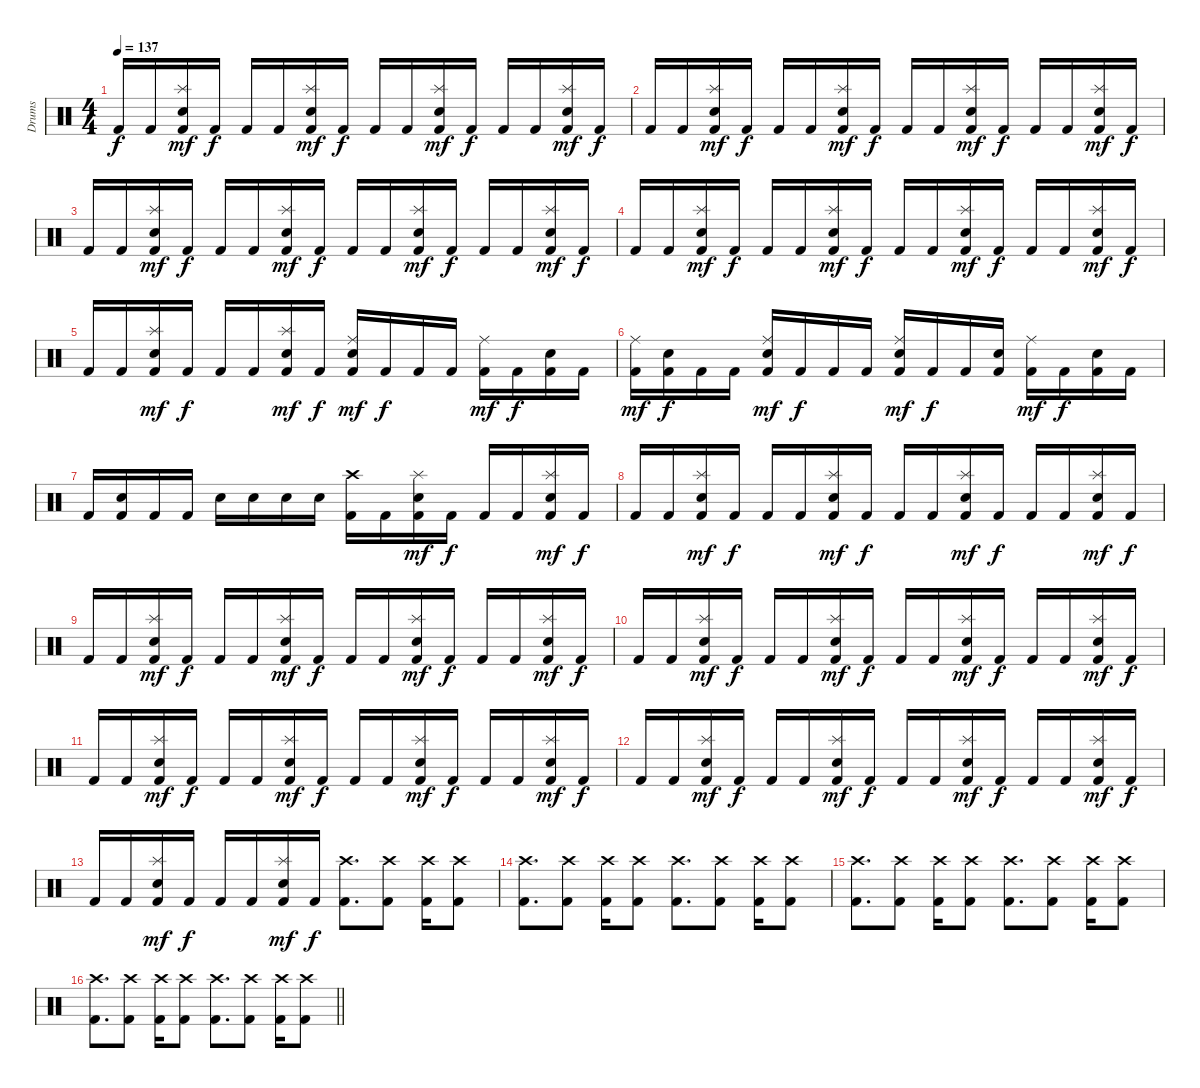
\track ("Drums" "Drums") {instrument percussion}
\staff {score}
\articulation defaults
\ts (4 4)
\tempo 137
\clef neutral
\ks c "Kick (hit) 2".16{dy f} "Kick (hit) 2".16
("Splash (hit)" "Electric Snare (hit)" "Kick (hit) 2").16{dy mf} "Kick (hit) 2".16{dy f} "Kick (hit) 2".16 "Kick (hit) 2".16 ("Splash (hit)" "Electric Snare (hit)" "Kick (hit) 2").16{dy mf} "Kick (hit) 2".16{dy f} "Kick (hit) 2".16 "Kick (hit) 2".16 ("Splash (hit)" "Electric Snare (hit)" "Kick (hit) 2").16{dy mf} "Kick (hit) 2".16{dy f} "Kick (hit) 2".16 "Kick (hit) 2".16 ("Splash (hit)" "Electric Snare (hit)" "Kick (hit) 2").16{dy mf} "Kick (hit) 2".16{dy f} |
"Kick (hit) 2".16 "Kick (hit) 2".16 ("Splash (hit)" "Electric Snare (hit)" "Kick (hit) 2").16{dy mf} "Kick (hit) 2".16{dy f} "Kick (hit) 2".16 "Kick (hit) 2".16 ("Splash (hit)" "Electric Snare (hit)" "Kick (hit) 2").16{dy mf} "Kick (hit) 2".16{dy f} "Kick (hit) 2".16 "Kick (hit) 2".16 ("Splash (hit)" "Electric Snare (hit)" "Kick (hit) 2").16{dy mf} "Kick (hit) 2".16{dy f} "Kick (hit) 2".16 "Kick (hit) 2".16 ("Splash (hit)" "Electric Snare (hit)" "Kick (hit) 2").16{dy mf} "Kick (hit) 2".16{dy f} |
"Kick (hit) 2".16 "Kick (hit) 2".16 ("Splash (hit)" "Electric Snare (hit)" "Kick (hit) 2").16{dy mf} "Kick (hit) 2".16{dy f} "Kick (hit) 2".16 "Kick (hit) 2".16 ("Splash (hit)" "Electric Snare (hit)" "Kick (hit) 2").16{dy mf} "Kick (hit) 2".16{dy f} "Kick (hit) 2".16 "Kick (hit) 2".16 ("Splash (hit)" "Electric Snare (hit)" "Kick (hit) 2").16{dy mf} "Kick (hit) 2".16{dy f} "Kick (hit) 2".16 "Kick (hit) 2".16 ("Splash (hit)" "Electric Snare (hit)" "Kick (hit) 2").16{dy mf} "Kick (hit) 2".16{dy f} |
"Kick (hit) 2".16 "Kick (hit) 2".16 ("Splash (hit)" "Electric Snare (hit)" "Kick (hit) 2").16{dy mf} "Kick (hit) 2".16{dy f} "Kick (hit) 2".16 "Kick (hit) 2".16 ("Splash (hit)" "Electric Snare (hit)" "Kick (hit) 2").16{dy mf} "Kick (hit) 2".16{dy f} "Kick (hit) 2".16 "Kick (hit) 2".16 ("Splash (hit)" "Electric Snare (hit)" "Kick (hit) 2").16{dy mf} "Kick (hit) 2".16{dy f} "Kick (hit) 2".16 "Kick (hit) 2".16 ("Splash (hit)" "Electric Snare (hit)" "Kick (hit) 2").16{dy mf} "Kick (hit) 2".16{dy f} |
"Kick (hit) 2".16 "Kick (hit) 2".16 ("Splash (hit)" "Electric Snare (hit)" "Kick (hit) 2").16{dy mf} "Kick (hit) 2".16{dy f} "Kick (hit) 2".16 "Kick (hit) 2".16 ("Splash (hit)" "Electric Snare (hit)" "Kick (hit) 2").16{dy mf} "Kick (hit) 2".16{dy f} ("Ride (middle)" "Snare (hit) 2" "Kick (hit) 2").16{dy mf} "Kick (hit) 2".16{dy f} "Kick (hit) 2".16 "Kick (hit) 2".16 ("Ride (middle)" "Kick (hit) 2").16{dy mf} "Kick (hit) 2".16{dy f} ("Snare (hit) 2" "Kick (hit) 2").16 "Kick (hit) 2".16 |
("Ride (middle)" "Kick (hit) 2").16{dy mf} ("Snare (hit) 2" "Kick (hit) 2").16{dy f} "Kick (hit) 2".16 "Kick (hit) 2".16 ("Ride (middle)" "Snare (hit) 2" "Kick (hit) 2").16{dy mf} "Kick (hit) 2".16{dy f} "Kick (hit) 2".16 "Kick (hit) 2".16 ("Ride (middle)" "Snare (hit) 2" "Kick (hit) 2").16{dy mf} "Kick (hit) 2".16{dy f} "Kick (hit) 2".16 ("Snare (hit) 2" "Kick (hit) 2").16 ("Ride (middle)" "Kick (hit) 2").16{dy mf} "Kick (hit) 2".16{dy f} ("Snare (hit) 2" "Kick (hit) 2").16 "Kick (hit) 2".16 |
"Kick (hit) 2".16 ("Snare (hit) 2" "Kick (hit) 2").16 "Kick (hit) 2".16 "Kick (hit) 2".16 "Snare (hit) 2".16 "Snare (hit) 2".16 "Snare (hit) 2".16 "Snare (hit) 2".16 ("Crash high (hit)" "Kick (hit) 2").16 "Kick (hit) 2".16 ("Splash (hit)" "Electric Snare (hit)" "Kick (hit) 2").16{dy mf} "Kick (hit) 2".16{dy f} "Kick (hit) 2".16 "Kick (hit) 2".16 ("Splash (hit)" "Electric Snare (hit)" "Kick (hit) 2").16{dy mf} "Kick (hit) 2".16{dy f} |
"Kick (hit) 2".16 "Kick (hit) 2".16 ("Splash (hit)" "Electric Snare (hit)" "Kick (hit) 2").16{dy mf} "Kick (hit) 2".16{dy f} "Kick (hit) 2".16 "Kick (hit) 2".16 ("Splash (hit)" "Electric Snare (hit)" "Kick (hit) 2").16{dy mf} "Kick (hit) 2".16{dy f} "Kick (hit) 2".16 "Kick (hit) 2".16 ("Splash (hit)" "Electric Snare (hit)" "Kick (hit) 2").16{dy mf} "Kick (hit) 2".16{dy f} "Kick (hit) 2".16 "Kick (hit) 2".16 ("Splash (hit)" "Electric Snare (hit)" "Kick (hit) 2").16{dy mf} "Kick (hit) 2".16{dy f} |
"Kick (hit) 2".16 "Kick (hit) 2".16 ("Splash (hit)" "Electric Snare (hit)" "Kick (hit) 2").16{dy mf} "Kick (hit) 2".16{dy f} "Kick (hit) 2".16 "Kick (hit) 2".16 ("Splash (hit)" "Electric Snare (hit)" "Kick (hit) 2").16{dy mf} "Kick (hit) 2".16{dy f} "Kick (hit) 2".16 "Kick (hit) 2".16 ("Splash (hit)" "Electric Snare (hit)" "Kick (hit) 2").16{dy mf} "Kick (hit) 2".16{dy f} "Kick (hit) 2".16 "Kick (hit) 2".16 ("Splash (hit)" "Electric Snare (hit)" "Kick (hit) 2").16{dy mf} "Kick (hit) 2".16{dy f} |
"Kick (hit) 2".16 "Kick (hit) 2".16 ("Splash (hit)" "Electric Snare (hit)" "Kick (hit) 2").16{dy mf} "Kick (hit) 2".16{dy f} "Kick (hit) 2".16 "Kick (hit) 2".16 ("Splash (hit)" "Electric Snare (hit)" "Kick (hit) 2").16{dy mf} "Kick (hit) 2".16{dy f} "Kick (hit) 2".16 "Kick (hit) 2".16 ("Splash (hit)" "Electric Snare (hit)" "Kick (hit) 2").16{dy mf} "Kick (hit) 2".16{dy f} "Kick (hit) 2".16 "Kick (hit) 2".16 ("Splash (hit)" "Electric Snare (hit)" "Kick (hit) 2").16{dy mf} "Kick (hit) 2".16{dy f} |
"Kick (hit) 2".16 "Kick (hit) 2".16 ("Splash (hit)" "Electric Snare (hit)" "Kick (hit) 2").16{dy mf} "Kick (hit) 2".16{dy f} "Kick (hit) 2".16 "Kick (hit) 2".16 ("Splash (hit)" "Electric Snare (hit)" "Kick (hit) 2").16{dy mf} "Kick (hit) 2".16{dy f} "Kick (hit) 2".16 "Kick (hit) 2".16 ("Splash (hit)" "Electric Snare (hit)" "Kick (hit) 2").16{dy mf} "Kick (hit) 2".16{dy f} "Kick (hit) 2".16 "Kick (hit) 2".16 ("Splash (hit)" "Electric Snare (hit)" "Kick (hit) 2").16{dy mf} "Kick (hit) 2".16{dy f} |
"Kick (hit) 2".16 "Kick (hit) 2".16 ("Splash (hit)" "Electric Snare (hit)" "Kick (hit) 2").16{dy mf} "Kick (hit) 2".16{dy f} "Kick (hit) 2".16 "Kick (hit) 2".16 ("Splash (hit)" "Electric Snare (hit)" "Kick (hit) 2").16{dy mf} "Kick (hit) 2".16{dy f} "Kick (hit) 2".16 "Kick (hit) 2".16 ("Splash (hit)" "Electric Snare (hit)" "Kick (hit) 2").16{dy mf} "Kick (hit) 2".16{dy f} "Kick (hit) 2".16 "Kick (hit) 2".16 ("Splash (hit)" "Electric Snare (hit)" "Kick (hit) 2").16{dy mf} "Kick (hit) 2".16{dy f} |
"Kick (hit) 2".16 "Kick (hit) 2".16 ("Splash (hit)" "Electric Snare (hit)" "Kick (hit) 2").16{dy mf} "Kick (hit) 2".16{dy f} "Kick (hit) 2".16 "Kick (hit) 2".16 ("Splash (hit)" "Electric Snare (hit)" "Kick (hit) 2").16{dy mf} "Kick (hit) 2".16{dy f} ("Crash high (hit)" "Kick (hit) 2").8{d} ("Crash high (hit)" "Kick (hit) 2").8 ("Crash high (hit)" "Kick (hit) 2").16 ("Crash high (hit)" "Kick (hit) 2").8 |
("Crash high (hit)" "Kick (hit) 2").8{d} ("Crash high (hit)" "Kick (hit) 2").8 ("Crash high (hit)" "Kick (hit) 2").16 ("Crash high (hit)" "Kick (hit) 2").8 ("Crash high (hit)" "Kick (hit) 2").8{d} ("Crash high (hit)" "Kick (hit) 2").8 ("Crash high (hit)" "Kick (hit) 2").16 ("Crash high (hit)" "Kick (hit) 2").8 |
("Crash high (hit)" "Kick (hit) 2").8{d} ("Crash high (hit)" "Kick (hit) 2").8 ("Crash high (hit)" "Kick (hit) 2").16 ("Crash high (hit)" "Kick (hit) 2").8 ("Crash high (hit)" "Kick (hit) 2").8{d} ("Crash high (hit)" "Kick (hit) 2").8 ("Crash high (hit)" "Kick (hit) 2").16 ("Crash high (hit)" "Kick (hit) 2").8 |
\barLineRight lightlight
("Crash high (hit)" "Kick (hit) 2").8{d} ("Crash high (hit)" "Kick (hit) 2").8 ("Crash high (hit)" "Kick (hit) 2").16 ("Crash high (hit)" "Kick (hit) 2").8 ("Crash high (hit)" "Kick (hit) 2").8{d} ("Crash high (hit)" "Kick (hit) 2").8 ("Crash high (hit)" "Kick (hit) 2").16 ("Crash high (hit)" "Kick (hit) 2").8
